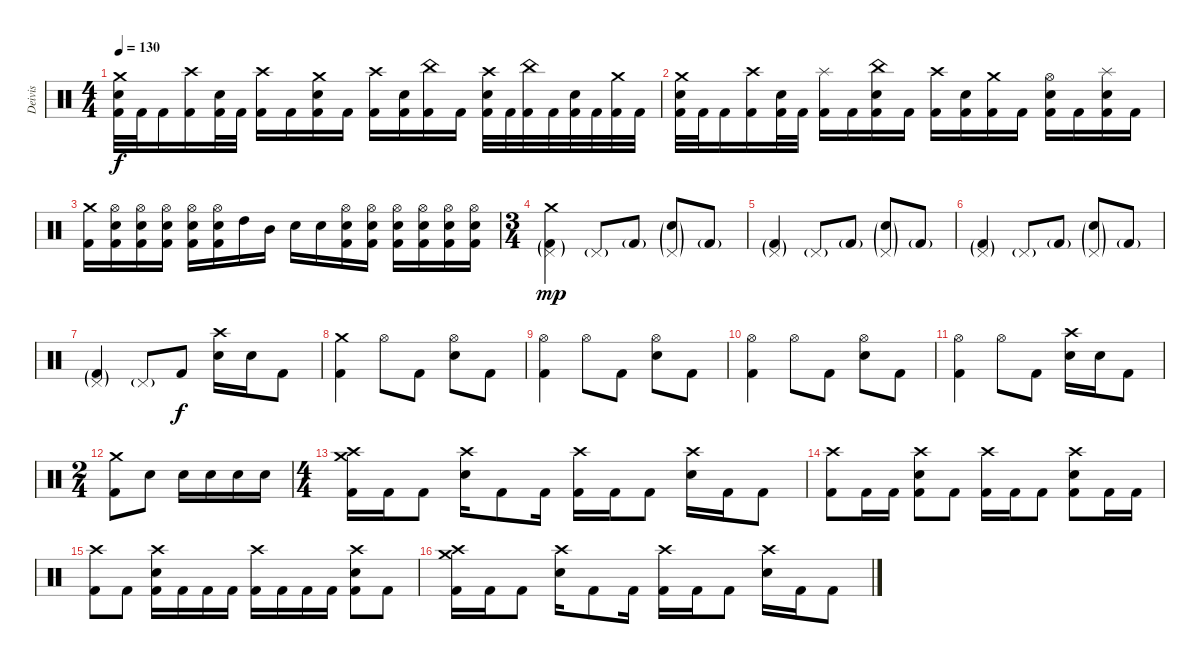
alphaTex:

\track ("Deivis" "Deivis") {instrument percussion}
\staff {score}
\articulation defaults
\ts (4 4)
\tempo 130
\clef neutral
\ks c
("Crash medium (hit)" "Electric Snare (hit)" "Kick (hit) 2").32{dy f} "Kick (hit) 2".32 "Kick (hit) 2".16 ("Crash high (hit)" "Kick (hit) 2").16 ("Electric Snare (hit)" "Kick (hit) 2").32 "Kick (hit) 2".32 ("Crash high (hit)" "Kick (hit) 2").16 "Kick (hit) 2".16 ("Crash medium (hit)" "Electric Snare (hit)" "Kick (hit) 2").16 "Kick (hit) 2".16 ("Crash high (hit)" "Kick (hit) 2").16 ("Electric Snare (hit)" "Kick (hit) 2").16 ("China (hit)" "Kick (hit) 2").16 "Kick (hit) 2".16 ("Crash high (hit)" "Electric Snare (hit)" "Kick (hit) 2").32 "Kick (hit) 2".32 ("China (hit)" "Kick (hit) 2").32 "Kick (hit) 2".32 ("Electric Snare (hit)" "Kick (hit) 2").32 "Kick (hit) 2".32 ("Crash medium (hit)" "Kick (hit) 2").32 "Kick (hit) 2".32 |
("Crash medium (hit)" "Electric Snare (hit)" "Kick (hit) 2").32 "Kick (hit) 2".32 "Kick (hit) 2".16 ("Crash high (hit)" "Kick (hit) 2").16 ("Electric Snare (hit)" "Kick (hit) 2").32 "Kick (hit) 2".32 ("Splash (hit)" "Kick (hit) 2").16 "Kick (hit) 2".16 ("China (hit)" "Electric Snare (hit)" "Kick (hit) 2").16 "Kick (hit) 2".16 ("Crash high (hit)" "Kick (hit) 2").16 ("Electric Snare (hit)" "Kick (hit) 2").16 ("Crash medium (hit)" "Kick (hit) 2").16 "Kick (hit) 2".16 ("Hi-Hat (open)" "Electric Snare (hit)" "Kick (hit) 2").16 "Kick (hit) 2".16 ("Splash (hit)" "Electric Snare (hit)" "Kick (hit) 2").16 "Kick (hit) 2".16 |
("Crash medium (hit)" "Kick (hit) 2").16 ("Hi-Hat (open)" "Electric Snare (hit)" "Kick (hit) 2").16 ("Hi-Hat (open)" "Electric Snare (hit)" "Kick (hit) 2").16 ("Hi-Hat (open)" "Electric Snare (hit)" "Kick (hit) 2").16 ("Hi-Hat (open)" "Electric Snare (hit)" "Kick (hit) 2").16 ("Hi-Hat (open)" "Electric Snare (hit)" "Kick (hit) 2").16 "High Tom (hit)".16 "Mid Tom (hit)".16 "Electric Snare (hit)".16 "Electric Snare (hit)".16 ("Hi-Hat (open)" "Electric Snare (hit)" "Kick (hit) 2").16 ("Hi-Hat (open)" "Electric Snare (hit)" "Kick (hit) 2").16 ("Hi-Hat (open)" "Electric Snare (hit)" "Kick (hit) 2").16 ("Hi-Hat (open)" "Electric Snare (hit)" "Kick (hit) 2").16 ("Hi-Hat (open)" "Electric Snare (hit)" "Kick (hit) 2").16 ("Hi-Hat (open)" "Electric Snare (hit)" "Kick (hit) 2").16 |
\ts (3 4)
("Crash medium (hit)" "Pedal Hi-Hat (hit)"{g} "Kick (hit) 2"{g}).4{dy mp} "Pedal Hi-Hat (hit)"{g}.8 "Kick (hit) 2"{g}.8 ("Pedal Hi-Hat (hit)"{g} "Electric Snare (hit)"{g}).8 "Kick (hit) 2"{g}.8 |
("Pedal Hi-Hat (hit)"{g} "Kick (hit) 2"{g}).4 "Pedal Hi-Hat (hit)"{g}.8 "Kick (hit) 2"{g}.8 ("Pedal Hi-Hat (hit)"{g} "Electric Snare (hit)"{g}).8 "Kick (hit) 2"{g}.8 |
("Pedal Hi-Hat (hit)"{g} "Kick (hit) 2"{g}).4 "Pedal Hi-Hat (hit)"{g}.8 "Kick (hit) 2"{g}.8 ("Pedal Hi-Hat (hit)"{g} "Electric Snare (hit)"{g}).8 "Kick (hit) 2"{g}.8 |
("Pedal Hi-Hat (hit)"{g} "Kick (hit) 2"{g}).4 "Pedal Hi-Hat (hit)"{g}.8 "Kick (hit) 2".8{dy f} ("Crash high (hit)" "Electric Snare (hit)").16 "Electric Snare (hit)".16 "Kick (hit) 2".8 |
("Crash medium (hit)" "Kick (hit) 2").4 "Hi-Hat (open)".8 "Kick (hit) 2".8 ("Hi-Hat (open)" "Electric Snare (hit)").8 "Kick (hit) 2".8 |
("Hi-Hat (open)" "Kick (hit) 2").4 "Hi-Hat (open)".8 "Kick (hit) 2".8 ("Hi-Hat (open)" "Electric Snare (hit)").8 "Kick (hit) 2".8 |
("Hi-Hat (open)" "Kick (hit) 2").4 "Hi-Hat (open)".8 "Kick (hit) 2".8 ("Hi-Hat (open)" "Electric Snare (hit)").8 "Kick (hit) 2".8 |
("Hi-Hat (open)" "Kick (hit) 2").4 "Hi-Hat (open)".8 "Kick (hit) 2".8 ("Crash high (hit)" "Electric Snare (hit)").16 "Electric Snare (hit)".16 "Kick (hit) 2".8 |
\ts (2 4)
("Crash medium (hit)" "Kick (hit) 2").8 "Electric Snare (hit)".8 "Electric Snare (hit)".16 "Electric Snare (hit)".16 "Electric Snare (hit)".16 "Electric Snare (hit)".16 |
\ts (4 4)
("Crash medium (hit)" "Crash high (hit)" "Kick (hit) 2").16 "Kick (hit) 2".16 "Kick (hit) 2".8 ("Crash high (hit)" "Electric Snare (hit)").16 "Kick (hit) 2".8 "Kick (hit) 2".16 ("Crash high (hit)" "Kick (hit) 2").16 "Kick (hit) 2".16 "Kick (hit) 2".8 ("Crash high (hit)" "Electric Snare (hit)").16 "Kick (hit) 2".16 "Kick (hit) 2".8 |
("Crash high (hit)" "Kick (hit) 2").8 "Kick (hit) 2".16 "Kick (hit) 2".16 ("Crash high (hit)" "Electric Snare (hit)" "Kick (hit) 2").8 "Kick (hit) 2".8 ("Crash high (hit)" "Kick (hit) 2").16 "Kick (hit) 2".16 "Kick (hit) 2".8 ("Crash high (hit)" "Electric Snare (hit)" "Kick (hit) 2").8 "Kick (hit) 2".16 "Kick (hit) 2".16 |
("Crash high (hit)" "Kick (hit) 2").8 "Kick (hit) 2".8 ("Crash high (hit)" "Electric Snare (hit)" "Kick (hit) 2").16 "Kick (hit) 2".16 "Kick (hit) 2".16 "Kick (hit) 2".16 ("Crash high (hit)" "Kick (hit) 2").16 "Kick (hit) 2".16 "Kick (hit) 2".16 "Kick (hit) 2".16 ("Crash high (hit)" "Electric Snare (hit)" "Kick (hit) 2").8 "Kick (hit) 2".8 |
("Crash medium (hit)" "Crash high (hit)" "Kick (hit) 2").16 "Kick (hit) 2".16 "Kick (hit) 2".8 ("Crash high (hit)" "Electric Snare (hit)").16 "Kick (hit) 2".8 "Kick (hit) 2".16 ("Crash high (hit)" "Kick (hit) 2").16 "Kick (hit) 2".16 "Kick (hit) 2".8 ("Crash high (hit)" "Electric Snare (hit)").16 "Kick (hit) 2".16 "Kick (hit) 2".8
